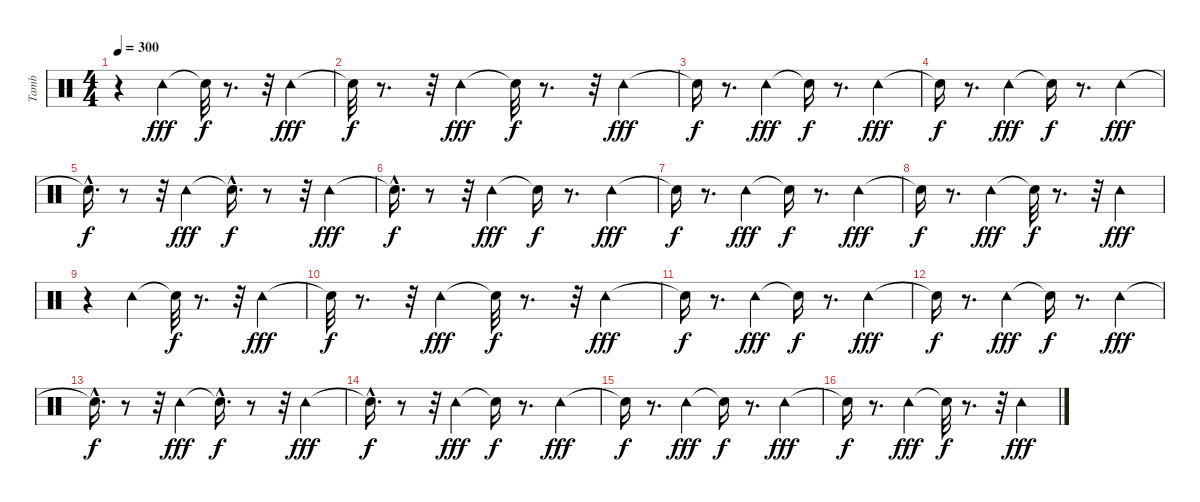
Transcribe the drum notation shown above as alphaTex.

\track ("Tamb" "Tamb") {instrument percussion}
\staff {score}
\articulation defaults
\ts (4 4)
\tempo 300
\clef neutral
\ks c
r.4{dy fff} "Tambourine (hit)".4 "Snare (hit)"{t}.32{dy f} r.8{d} r.32 "Tambourine (hit)".4{dy fff} |
"Snare (hit)"{t}.32{dy f} r.8{d} r.32 "Tambourine (hit)".4{dy fff} "Snare (hit)"{t}.32{dy f} r.8{d} r.32 "Tambourine (hit)".4{dy fff} |
"Snare (hit)"{t}.16{dy f} r.8{d} "Tambourine (hit)".4{dy fff} "Snare (hit)"{t}.16{dy f} r.8{d} "Tambourine (hit)".4{dy fff} |
"Snare (hit)"{t}.16{dy f} r.8{d} "Tambourine (hit)".4{dy fff} "Snare (hit)"{t}.16{dy f} r.8{d} "Tambourine (hit)".4{dy fff} |
"Snare (hit)"{hac t}.16{d dy f} r.8 r.32 "Tambourine (hit)".4{dy fff} "Snare (hit)"{hac t}.16{d dy f} r.8 r.32 "Tambourine (hit)".4{dy fff} |
"Snare (hit)"{hac t}.16{d dy f} r.8 r.32 "Tambourine (hit)".4{dy fff} "Snare (hit)"{t}.16{dy f} r.8{d} "Tambourine (hit)".4{dy fff} |
"Snare (hit)"{t}.16{dy f} r.8{d} "Tambourine (hit)".4{dy fff} "Snare (hit)"{t}.16{dy f} r.8{d} "Tambourine (hit)".4{dy fff} |
"Snare (hit)"{t}.16{dy f} r.8{d} "Tambourine (hit)".4{dy fff} "Snare (hit)"{t}.32{dy f} r.8{d} r.32 "Tambourine (hit)".4{dy fff} |
r.4 "Tambourine (hit)".4 "Snare (hit)"{t}.32{dy f} r.8{d} r.32 "Tambourine (hit)".4{dy fff} |
"Snare (hit)"{t}.32{dy f} r.8{d} r.32 "Tambourine (hit)".4{dy fff} "Snare (hit)"{t}.32{dy f} r.8{d} r.32 "Tambourine (hit)".4{dy fff} |
"Snare (hit)"{t}.16{dy f} r.8{d} "Tambourine (hit)".4{dy fff} "Snare (hit)"{t}.16{dy f} r.8{d} "Tambourine (hit)".4{dy fff} |
"Snare (hit)"{t}.16{dy f} r.8{d} "Tambourine (hit)".4{dy fff} "Snare (hit)"{t}.16{dy f} r.8{d} "Tambourine (hit)".4{dy fff} |
"Snare (hit)"{hac t}.16{d dy f} r.8 r.32 "Tambourine (hit)".4{dy fff} "Snare (hit)"{hac t}.16{d dy f} r.8 r.32 "Tambourine (hit)".4{dy fff} |
"Snare (hit)"{hac t}.16{d dy f} r.8 r.32 "Tambourine (hit)".4{dy fff} "Snare (hit)"{t}.16{dy f} r.8{d} "Tambourine (hit)".4{dy fff} |
"Snare (hit)"{t}.16{dy f} r.8{d} "Tambourine (hit)".4{dy fff} "Snare (hit)"{t}.16{dy f} r.8{d} "Tambourine (hit)".4{dy fff} |
"Snare (hit)"{t}.16{dy f} r.8{d} "Tambourine (hit)".4{dy fff} "Snare (hit)"{t}.32{dy f} r.8{d} r.32 "Tambourine (hit)".4{dy fff}
